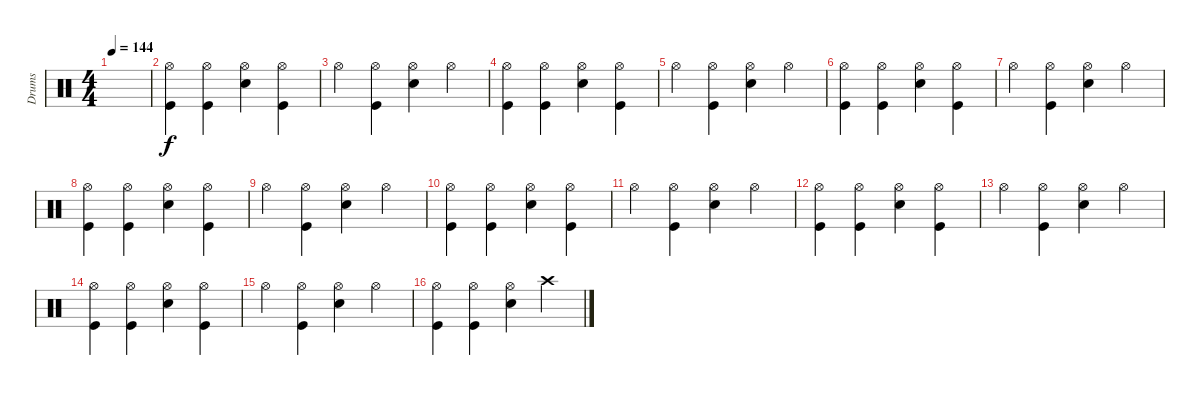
\track ("Drums               " "Drums     ") {instrument percussion}
\staff {score}
\articulation defaults
\ts (4 4)
\tempo 144
\clef neutral
\ks c
|
("Hi-Hat (open)" "Kick (hit)").4 ("Hi-Hat (open)" "Kick (hit)").4 ("Hi-Hat (open)" "Snare (hit) 2").4 ("Hi-Hat (open)" "Kick (hit)").4 |
"Hi-Hat (open)".4 ("Hi-Hat (open)" "Kick (hit)").4 ("Hi-Hat (open)" "Snare (hit) 2").4 "Hi-Hat (open)".4 |
("Hi-Hat (open)" "Kick (hit)").4 ("Hi-Hat (open)" "Kick (hit)").4 ("Hi-Hat (open)" "Snare (hit) 2").4 ("Hi-Hat (open)" "Kick (hit)").4 |
"Hi-Hat (open)".4 ("Hi-Hat (open)" "Kick (hit)").4 ("Hi-Hat (open)" "Snare (hit) 2").4 "Hi-Hat (open)".4 |
("Hi-Hat (open)" "Kick (hit)").4 ("Hi-Hat (open)" "Kick (hit)").4 ("Hi-Hat (open)" "Snare (hit) 2").4 ("Hi-Hat (open)" "Kick (hit)").4 |
"Hi-Hat (open)".4 ("Hi-Hat (open)" "Kick (hit)").4 ("Hi-Hat (open)" "Snare (hit) 2").4 "Hi-Hat (open)".4 |
("Hi-Hat (open)" "Kick (hit)").4 ("Hi-Hat (open)" "Kick (hit)").4 ("Hi-Hat (open)" "Snare (hit) 2").4 ("Hi-Hat (open)" "Kick (hit)").4 |
"Hi-Hat (open)".4 ("Hi-Hat (open)" "Kick (hit)").4 ("Hi-Hat (open)" "Snare (hit) 2").4 "Hi-Hat (open)".4 |
("Hi-Hat (open)" "Kick (hit)").4 ("Hi-Hat (open)" "Kick (hit)").4 ("Hi-Hat (open)" "Snare (hit) 2").4 ("Hi-Hat (open)" "Kick (hit)").4 |
"Hi-Hat (open)".4 ("Hi-Hat (open)" "Kick (hit)").4 ("Hi-Hat (open)" "Snare (hit) 2").4 "Hi-Hat (open)".4 |
("Hi-Hat (open)" "Kick (hit)").4 ("Hi-Hat (open)" "Kick (hit)").4 ("Hi-Hat (open)" "Snare (hit) 2").4 ("Hi-Hat (open)" "Kick (hit)").4 |
"Hi-Hat (open)".4 ("Hi-Hat (open)" "Kick (hit)").4 ("Hi-Hat (open)" "Snare (hit) 2").4 "Hi-Hat (open)".4 |
("Hi-Hat (open)" "Kick (hit)").4 ("Hi-Hat (open)" "Kick (hit)").4 ("Hi-Hat (open)" "Snare (hit) 2").4 ("Hi-Hat (open)" "Kick (hit)").4 |
"Hi-Hat (open)".4 ("Hi-Hat (open)" "Kick (hit)").4 ("Hi-Hat (open)" "Snare (hit) 2").4 "Hi-Hat (open)".4 |
("Hi-Hat (open)" "Kick (hit)").4 ("Hi-Hat (open)" "Kick (hit)").4 ("Hi-Hat (open)" "Snare (hit) 2").4 "Crash high (hit)".4
